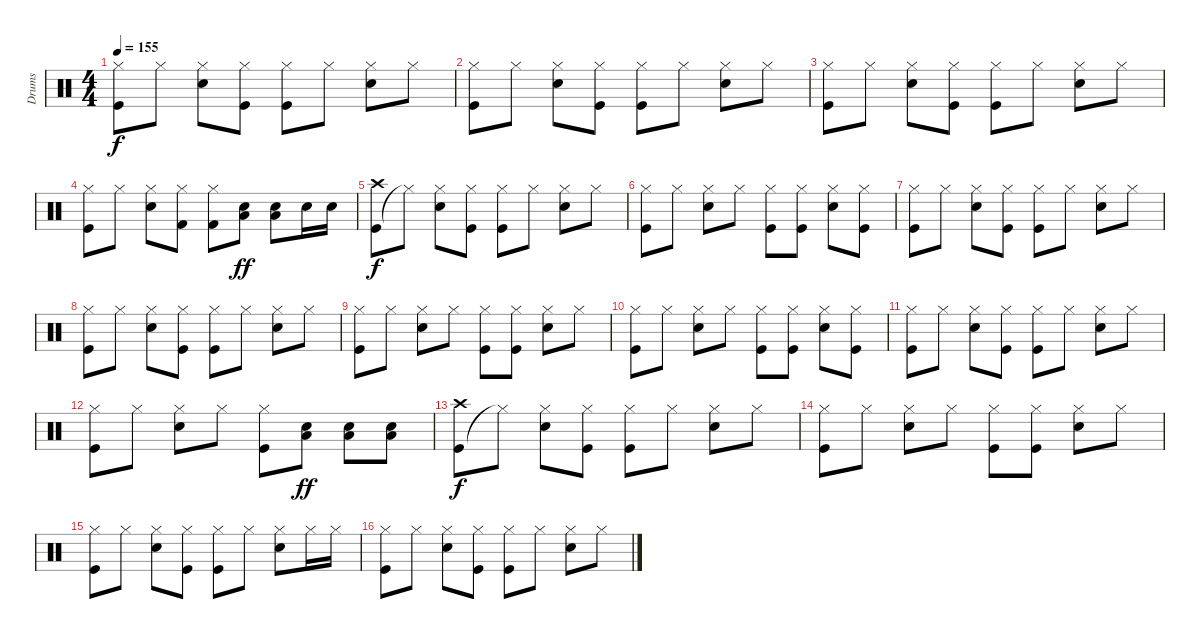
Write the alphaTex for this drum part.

\track ("Drums" "Drums") {instrument percussion}
\staff {score}
\articulation defaults
\ts (4 4)
\tempo 155
\clef neutral
\ks c
("Kick (hit)" "Hi-Hat (closed)").8{dy f} "Hi-Hat (closed)".8 ("Snare (hit) 2" "Hi-Hat (closed)").8 ("Kick (hit)" "Hi-Hat (closed)").8 ("Kick (hit)" "Hi-Hat (closed)").8 "Hi-Hat (closed)".8 ("Snare (hit) 2" "Hi-Hat (closed)").8 "Hi-Hat (closed)".8 |
("Kick (hit)" "Hi-Hat (closed)").8 "Hi-Hat (closed)".8 ("Snare (hit) 2" "Hi-Hat (closed)").8 ("Kick (hit)" "Hi-Hat (closed)").8 ("Kick (hit)" "Hi-Hat (closed)").8 "Hi-Hat (closed)".8 ("Snare (hit) 2" "Hi-Hat (closed)").8 "Hi-Hat (closed)".8 |
("Kick (hit)" "Hi-Hat (closed)").8 "Hi-Hat (closed)".8 ("Snare (hit) 2" "Hi-Hat (closed)").8 ("Kick (hit)" "Hi-Hat (closed)").8 ("Kick (hit)" "Hi-Hat (closed)").8 "Hi-Hat (closed)".8 ("Snare (hit) 2" "Hi-Hat (closed)").8 "Hi-Hat (closed)".8 |
("Kick (hit)" "Hi-Hat (closed)").8 "Hi-Hat (closed)".8 ("Snare (hit) 2" "Hi-Hat (closed)").8 ("Kick (hit) 2" "Hi-Hat (closed)").8 ("Kick (hit) 2" "Hi-Hat (closed)").8 ("Snare (hit) 2" "Low Floor Tom (hit)").8{dy ff} ("Snare (hit) 2" "Low Floor Tom (hit)").8 "Snare (hit) 2".16 "Snare (hit) 2".16 |
("Kick (hit)" "Crash high (hit)").8{dy f} "Hi-Hat (closed)"{t}.8 ("Snare (hit) 2" "Hi-Hat (closed)").8 ("Kick (hit)" "Hi-Hat (closed)").8 ("Kick (hit)" "Hi-Hat (closed)").8 "Hi-Hat (closed)".8 ("Snare (hit) 2" "Hi-Hat (closed)").8 "Hi-Hat (closed)".8 |
("Kick (hit)" "Hi-Hat (closed)").8 "Hi-Hat (closed)".8 ("Snare (hit) 2" "Hi-Hat (closed)").8 "Hi-Hat (closed)".8 ("Kick (hit)" "Hi-Hat (closed)").8 ("Kick (hit)" "Hi-Hat (closed)").8 ("Snare (hit) 2" "Hi-Hat (closed)").8 ("Kick (hit)" "Hi-Hat (closed)").8 |
("Kick (hit)" "Hi-Hat (closed)").8 "Hi-Hat (closed)".8 ("Snare (hit) 2" "Hi-Hat (closed)").8 ("Kick (hit)" "Hi-Hat (closed)").8 ("Kick (hit)" "Hi-Hat (closed)").8 "Hi-Hat (closed)".8 ("Snare (hit) 2" "Hi-Hat (closed)").8 "Hi-Hat (closed)".8 |
("Kick (hit)" "Hi-Hat (closed)").8 "Hi-Hat (closed)".8 ("Snare (hit) 2" "Hi-Hat (closed)").8 ("Kick (hit)" "Hi-Hat (closed)").8 ("Kick (hit)" "Hi-Hat (closed)").8 "Hi-Hat (closed)".8 ("Snare (hit) 2" "Hi-Hat (closed)").8 "Hi-Hat (closed)".8 |
("Kick (hit)" "Hi-Hat (closed)").8 "Hi-Hat (closed)".8 ("Snare (hit) 2" "Hi-Hat (closed)").8 "Hi-Hat (closed)".8 ("Kick (hit)" "Hi-Hat (closed)").8 ("Kick (hit)" "Hi-Hat (closed)").8 ("Snare (hit) 2" "Hi-Hat (closed)").8 "Hi-Hat (closed)".8 |
("Kick (hit)" "Hi-Hat (closed)").8 "Hi-Hat (closed)".8 ("Snare (hit) 2" "Hi-Hat (closed)").8 "Hi-Hat (closed)".8 ("Kick (hit)" "Hi-Hat (closed)").8 ("Kick (hit)" "Hi-Hat (closed)").8 ("Snare (hit) 2" "Hi-Hat (closed)").8 ("Kick (hit)" "Hi-Hat (closed)").8 |
("Kick (hit)" "Hi-Hat (closed)").8 "Hi-Hat (closed)".8 ("Snare (hit) 2" "Hi-Hat (closed)").8 ("Kick (hit)" "Hi-Hat (closed)").8 ("Kick (hit)" "Hi-Hat (closed)").8 "Hi-Hat (closed)".8 ("Snare (hit) 2" "Hi-Hat (closed)").8 "Hi-Hat (closed)".8 |
("Kick (hit)" "Hi-Hat (closed)").8 "Hi-Hat (closed)".8 ("Snare (hit) 2" "Hi-Hat (closed)").8 "Hi-Hat (closed)".8 ("Kick (hit)" "Hi-Hat (closed)").8 ("Snare (hit) 2" "Low Floor Tom (hit)").8{dy ff} ("Snare (hit) 2" "Low Floor Tom (hit)").8 ("Snare (hit) 2" "Low Floor Tom (hit)").8 |
("Kick (hit)" "Crash high (hit)").8{dy f} "Hi-Hat (closed)"{t}.8 ("Snare (hit) 2" "Hi-Hat (closed)").8 ("Kick (hit)" "Hi-Hat (closed)").8 ("Kick (hit)" "Hi-Hat (closed)").8 "Hi-Hat (closed)".8 ("Snare (hit) 2" "Hi-Hat (closed)").8 "Hi-Hat (closed)".8 |
("Kick (hit)" "Hi-Hat (closed)").8 "Hi-Hat (closed)".8 ("Snare (hit) 2" "Hi-Hat (closed)").8 "Hi-Hat (closed)".8 ("Kick (hit)" "Hi-Hat (closed)").8 ("Kick (hit)" "Hi-Hat (closed)").8 ("Snare (hit) 2" "Hi-Hat (closed)").8 "Hi-Hat (closed)".8 |
("Kick (hit)" "Hi-Hat (closed)").8 "Hi-Hat (closed)".8 ("Snare (hit) 2" "Hi-Hat (closed)").8 ("Kick (hit)" "Hi-Hat (closed)").8 ("Kick (hit)" "Hi-Hat (closed)").8 "Hi-Hat (closed)".8 ("Snare (hit) 2" "Hi-Hat (closed)").8 "Hi-Hat (closed)".16 "Hi-Hat (closed)".16 |
("Kick (hit)" "Hi-Hat (closed)").8 "Hi-Hat (closed)".8 ("Snare (hit) 2" "Hi-Hat (closed)").8 ("Kick (hit)" "Hi-Hat (closed)").8 ("Kick (hit)" "Hi-Hat (closed)").8 "Hi-Hat (closed)".8 ("Snare (hit) 2" "Hi-Hat (closed)").8 "Hi-Hat (closed)".8
